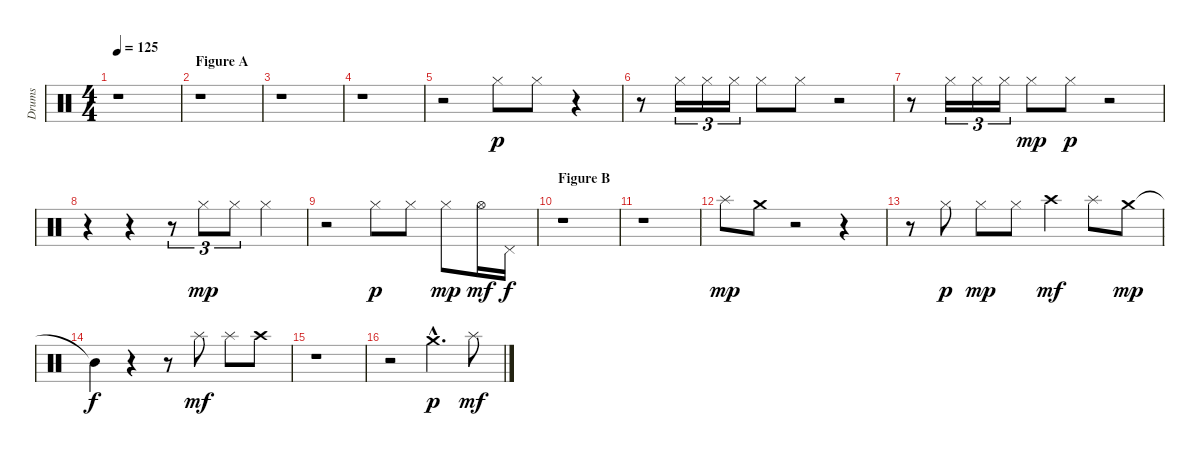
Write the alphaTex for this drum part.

\track ("Drums" "Drums") {instrument percussion}
\staff {score}
\articulation defaults
\ts (4 4)
\tempo 125
\clef neutral
\ks c
r.1{dy p} |
\section ("" "Figure A")
r.1 |
r.1 |
r.1 |
r.2{volume 13} "Hi-Hat (closed)".8 "Hi-Hat (closed)".8 r.4 |
r.8 "Hi-Hat (closed)".16{tu (3 2)} "Hi-Hat (closed)".16{tu (3 2)} "Hi-Hat (closed)".16{tu (3 2)} "Hi-Hat (closed)".8 "Hi-Hat (closed)".8 r.2 |
r.8 "Hi-Hat (closed)".16{tu (3 2)} "Hi-Hat (closed)".16{tu (3 2)} "Hi-Hat (closed)".16{tu (3 2)} "Hi-Hat (closed)".8{dy mp} "Hi-Hat (closed)".8{dy p} r.2 |
r.4 r.4 r.8{tu (3 2)} "Hi-Hat (closed)".8{tu (3 2) dy mp} "Hi-Hat (closed)".8{tu (3 2)} "Hi-Hat (closed)".4 |
r.2 "Hi-Hat (closed)".8{dy p} "Hi-Hat (closed)".8 "Hi-Hat (closed)".8{dy mp} "Hi-Hat (open)".16{dy mf} "Pedal Hi-Hat (hit)".16{dy f} |
\section ("" "Figure B")
r.1 |
r.1 |
"Splash (hit)".8{dy mp} "Crash medium (hit)".8 r.2 r.4 |
r.8 "Hi-Hat (closed)".8{dy p} "Hi-Hat (closed)".8{dy mp} "Hi-Hat (closed)".8 "Crash high (hit)".4{dy mf} "Splash (hit)".8 "Crash medium (hit)".8{dy mp} |
"Mid Tom (hit)"{t}.4{dy f} r.4 r.8 "Splash (hit)".8{dy mf} "Splash (hit)".8 "Crash high (hit)".8 |
r.1 |
r.2{volume 13} "Crash medium (hit)"{hac}.4{d dy p} "Splash (hit)".8{dy mf}
